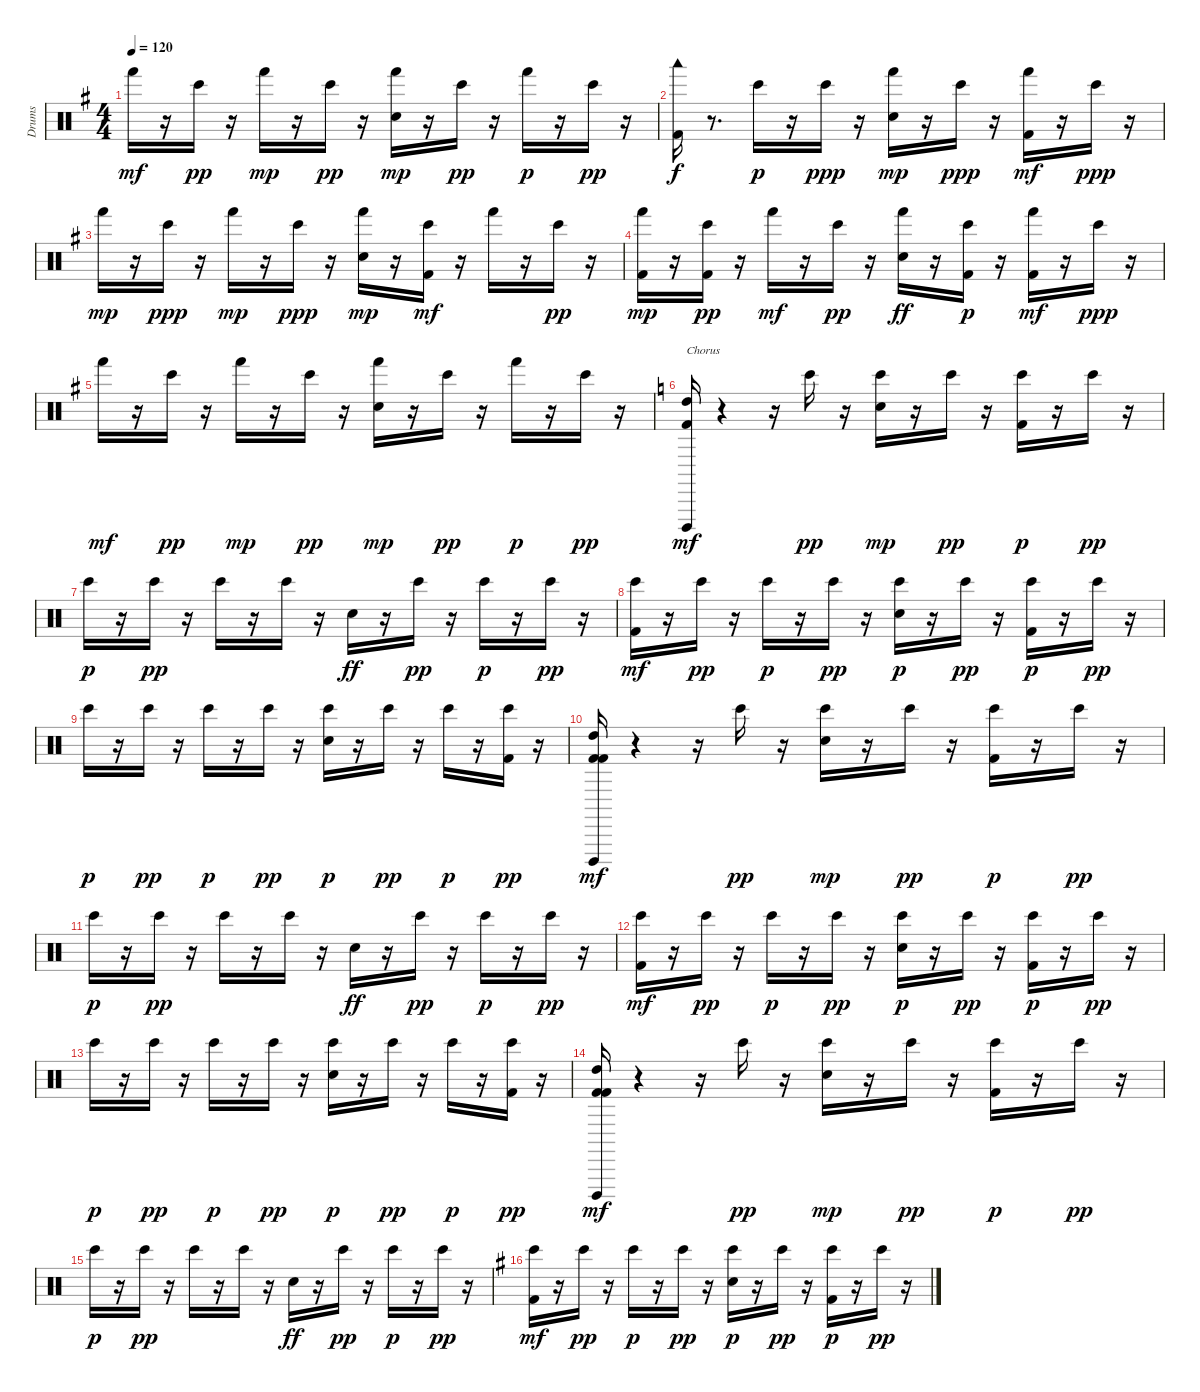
\track ("Drums" "Drums") {instrument percussion}
\staff {score}
\articulation defaults
\ts (4 4)
\tempo 120
\clef neutral
\ks g "Hand (hit)".16{dy mf}
r.16 "Bongo High (hit)".16{dy pp} r.16 "Hand (hit)".16{dy mp} r.16 "Bongo High (hit)".16{dy pp} r.16 ("Snare (hit) 2" "Hand (hit)").16{dy mp} r.16 "Bongo High (hit)".16{dy pp} r.16 "Hand (hit)".16{dy p} r.16 "Bongo High (hit)".16{dy pp} r.16 |
("Kick (hit) 2" "Woodblock low (hit)").16{dy f} r.8{d} "Bongo High (hit)".16{dy p} r.16 "Bongo High (hit)".16{dy ppp} r.16 ("Snare (hit) 2" "Hand (hit)").16{dy mp} r.16 "Bongo High (hit)".16{dy ppp} r.16 ("Hand (hit)" "Kick (hit) 2").16{dy mf} r.16 "Bongo High (hit)".16{dy ppp} r.16 |
"Hand (hit)".16{dy mp} r.16 "Bongo High (hit)".16{dy ppp} r.16 "Hand (hit)".16{dy mp} r.16 "Bongo High (hit)".16{dy ppp} r.16 ("Snare (hit) 2" "Hand (hit)").16{dy mp} r.16 ("Bongo High (hit)" "Kick (hit) 2").16{dy mf} r.16 "Hand (hit)".16 r.16 "Bongo High (hit)".16{dy pp} r.16 |
("Kick (hit) 2" "Hand (hit)").16{dy mp} r.16 ("Kick (hit) 2" "Bongo High (hit)").16{dy pp} r.16 "Hand (hit)".16{dy mf} r.16 "Bongo High (hit)".16{dy pp} r.16 ("Hand (hit)" "Snare (hit) 2").16{dy ff} r.16 ("Bongo High (hit)" "Kick (hit) 2").16{dy p} r.16 ("Kick (hit) 2" "Hand (hit)").16{dy mf} r.16 "Bongo High (hit)".16{dy ppp} r.16 |
"Hand (hit)".16{dy mf} r.16 "Bongo High (hit)".16{dy pp} r.16 "Hand (hit)".16{dy mp} r.16 "Bongo High (hit)".16{dy pp} r.16 ("Snare (hit) 2" "Hand (hit)").16{dy mp} r.16 "Bongo High (hit)".16{dy pp} r.16 "Hand (hit)".16{dy p} r.16 "Bongo High (hit)".16{dy pp} r.16 |
\ks c
("Kick (hit) 2" "High Tom (hit)" "Cuica (open)").16{txt "Chorus" dy mf} r.4 r.16 "Bongo High (hit)".16{dy pp} r.16 ("Snare (hit) 2" "Bongo High (hit)").16{dy mp} r.16 "Bongo High (hit)".16{dy pp} r.16 ("Kick (hit) 2" "Bongo High (hit)").16{dy p} r.16 "Bongo High (hit)".16{dy pp} r.16 |
"Bongo High (hit)".16{dy p} r.16 "Bongo High (hit)".16{dy pp} r.16 "Bongo High (hit)".16 r.16 "Bongo High (hit)".16 r.16 "Snare (hit) 2".16{dy ff} r.16 "Bongo High (hit)".16{dy pp} r.16 "Bongo High (hit)".16{dy p} r.16 "Bongo High (hit)".16{dy pp} r.16 |
("Bongo High (hit)" "Kick (hit) 2").16{dy mf} r.16 "Bongo High (hit)".16{dy pp} r.16 "Bongo High (hit)".16{dy p} r.16 "Bongo High (hit)".16{dy pp} r.16 ("Snare (hit) 2" "Bongo High (hit)").16{dy p} r.16 "Bongo High (hit)".16{dy pp} r.16 ("Kick (hit) 2" "Bongo High (hit)").16{dy p} r.16 "Bongo High (hit)".16{dy pp} r.16 |
"Bongo High (hit)".16{dy p} r.16 "Bongo High (hit)".16{dy pp} r.16 "Bongo High (hit)".16{dy p} r.16 "Bongo High (hit)".16{dy pp} r.16 ("Snare (hit) 2" "Bongo High (hit)").16{dy p} r.16 "Bongo High (hit)".16{dy pp} r.16 "Bongo High (hit)".16{dy p} r.16 ("Bongo High (hit)" "Kick (hit) 2").16{dy pp} r.16 |
("Kick (hit) 2" "Kick (hit) 2" "High Tom (hit)" "Cuica (open)").16{dy mf} r.4 r.16 "Bongo High (hit)".16{dy pp} r.16 ("Snare (hit) 2" "Bongo High (hit)").16{dy mp} r.16 "Bongo High (hit)".16{dy pp} r.16 ("Kick (hit) 2" "Bongo High (hit)").16{dy p} r.16 "Bongo High (hit)".16{dy pp} r.16 |
"Bongo High (hit)".16{dy p} r.16 "Bongo High (hit)".16{dy pp} r.16 "Bongo High (hit)".16 r.16 "Bongo High (hit)".16 r.16 "Snare (hit) 2".16{dy ff} r.16 "Bongo High (hit)".16{dy pp} r.16 "Bongo High (hit)".16{dy p} r.16 "Bongo High (hit)".16{dy pp} r.16 |
("Bongo High (hit)" "Kick (hit) 2").16{dy mf} r.16 "Bongo High (hit)".16{dy pp} r.16 "Bongo High (hit)".16{dy p} r.16 "Bongo High (hit)".16{dy pp} r.16 ("Snare (hit) 2" "Bongo High (hit)").16{dy p} r.16 "Bongo High (hit)".16{dy pp} r.16 ("Kick (hit) 2" "Bongo High (hit)").16{dy p} r.16 "Bongo High (hit)".16{dy pp} r.16 |
"Bongo High (hit)".16{dy p} r.16 "Bongo High (hit)".16{dy pp} r.16 "Bongo High (hit)".16{dy p} r.16 "Bongo High (hit)".16{dy pp} r.16 ("Snare (hit) 2" "Bongo High (hit)").16{dy p} r.16 "Bongo High (hit)".16{dy pp} r.16 "Bongo High (hit)".16{dy p} r.16 ("Bongo High (hit)" "Kick (hit) 2").16{dy pp} r.16 |
("Kick (hit) 2" "Kick (hit) 2" "High Tom (hit)" "Cuica (open)").16{dy mf} r.4 r.16 "Bongo High (hit)".16{dy pp} r.16 ("Snare (hit) 2" "Bongo High (hit)").16{dy mp} r.16 "Bongo High (hit)".16{dy pp} r.16 ("Kick (hit) 2" "Bongo High (hit)").16{dy p} r.16 "Bongo High (hit)".16{dy pp} r.16 |
"Bongo High (hit)".16{dy p} r.16 "Bongo High (hit)".16{dy pp} r.16 "Bongo High (hit)".16 r.16 "Bongo High (hit)".16 r.16 "Snare (hit) 2".16{dy ff} r.16 "Bongo High (hit)".16{dy pp} r.16 "Bongo High (hit)".16{dy p} r.16 "Bongo High (hit)".16{dy pp} r.16 |
\ks g
("Bongo High (hit)" "Kick (hit) 2").16{dy mf} r.16 "Bongo High (hit)".16{dy pp} r.16 "Bongo High (hit)".16{dy p} r.16 "Bongo High (hit)".16{dy pp} r.16 ("Snare (hit) 2" "Bongo High (hit)").16{dy p} r.16 "Bongo High (hit)".16{dy pp} r.16 ("Kick (hit) 2" "Bongo High (hit)").16{dy p} r.16 "Bongo High (hit)".16{dy pp} r.16
